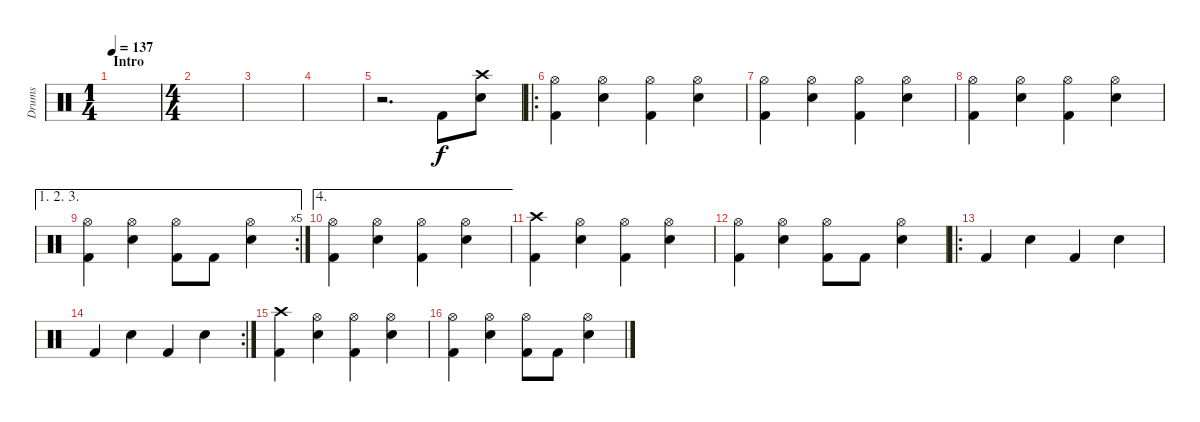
\track ("Drums" "Drums") {instrument percussion}
\staff {score}
\articulation defaults
\ts (1 4)
\section ("" "Intro")
\tempo 137
\clef neutral
\ks c
|
\ts (4 4)
|
|
|
r.2{d} "Kick (hit) 2".8 ("Crash high (hit)" "Snare (hit) 2").8 |
\ro
("Hi-Hat (open)" "Kick (hit) 2").4 ("Hi-Hat (open)" "Snare (hit) 2").4 ("Hi-Hat (open)" "Kick (hit) 2").4 ("Hi-Hat (open)" "Snare (hit) 2").4 |
("Hi-Hat (open)" "Kick (hit) 2").4 ("Hi-Hat (open)" "Snare (hit) 2").4 ("Hi-Hat (open)" "Kick (hit) 2").4 ("Hi-Hat (open)" "Snare (hit) 2").4 |
("Hi-Hat (open)" "Kick (hit) 2").4 ("Hi-Hat (open)" "Snare (hit) 2").4 ("Hi-Hat (open)" "Kick (hit) 2").4 ("Hi-Hat (open)" "Snare (hit) 2").4 |
\ae (1 2 3)
\rc 5
("Hi-Hat (open)" "Kick (hit) 2").4 ("Hi-Hat (open)" "Snare (hit) 2").4 ("Hi-Hat (open)" "Kick (hit) 2").8 "Kick (hit) 2".8 ("Hi-Hat (open)" "Snare (hit) 2").4 |
\ae 4
("Hi-Hat (open)" "Kick (hit) 2").4 ("Hi-Hat (open)" "Snare (hit) 2").4 ("Hi-Hat (open)" "Kick (hit) 2").4 ("Hi-Hat (open)" "Snare (hit) 2").4 |
("Crash high (hit)" "Kick (hit) 2").4 ("Hi-Hat (open)" "Snare (hit) 2").4 ("Hi-Hat (open)" "Kick (hit) 2").4 ("Hi-Hat (open)" "Snare (hit) 2").4 |
("Hi-Hat (open)" "Kick (hit) 2").4 ("Hi-Hat (open)" "Snare (hit) 2").4 ("Hi-Hat (open)" "Kick (hit) 2").8 "Kick (hit) 2".8 ("Hi-Hat (open)" "Snare (hit) 2").4 |
\ro "Kick (hit) 2".4 "Snare (hit) 2".4 "Kick (hit) 2".4 "Snare (hit) 2".4
|
\rc 2 "Kick (hit) 2".4 "Snare (hit) 2".4 "Kick (hit) 2".4 "Snare (hit) 2".4
|
("Crash high (hit)" "Kick (hit) 2").4 ("Hi-Hat (open)" "Snare (hit) 2").4 ("Hi-Hat (open)" "Kick (hit) 2").4 ("Hi-Hat (open)" "Snare (hit) 2").4 |
("Hi-Hat (open)" "Kick (hit) 2").4 ("Hi-Hat (open)" "Snare (hit) 2").4 ("Hi-Hat (open)" "Kick (hit) 2").8 "Kick (hit) 2".8 ("Hi-Hat (open)" "Snare (hit) 2").4
